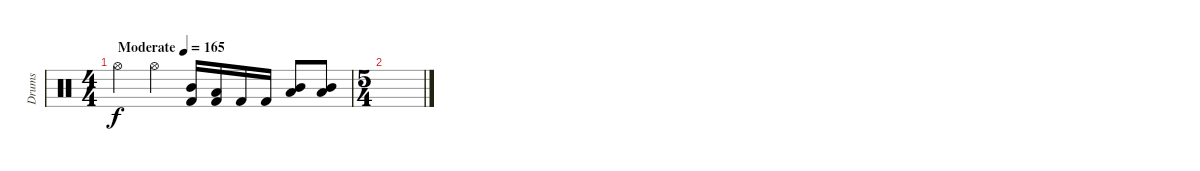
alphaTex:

\track ("Drums" "Drums") {instrument percussion}
\staff {score}
\articulation defaults
\ts (4 4)
\tempo (165 "Moderate")
\clef neutral
\ks c "Hi-Hat (open)".4{dy f} "Hi-Hat (open)".4
("Mid Tom (hit)" "Kick (hit) 2").16 ("Low Tom (hit)" "Kick (hit) 2").16 "Kick (hit) 2".16 "Kick (hit) 2".16 ("Mid Tom (hit)" "Low Tom (hit)").8 ("Mid Tom (hit)" "Low Tom (hit)").8 |
\ts (5 4)
